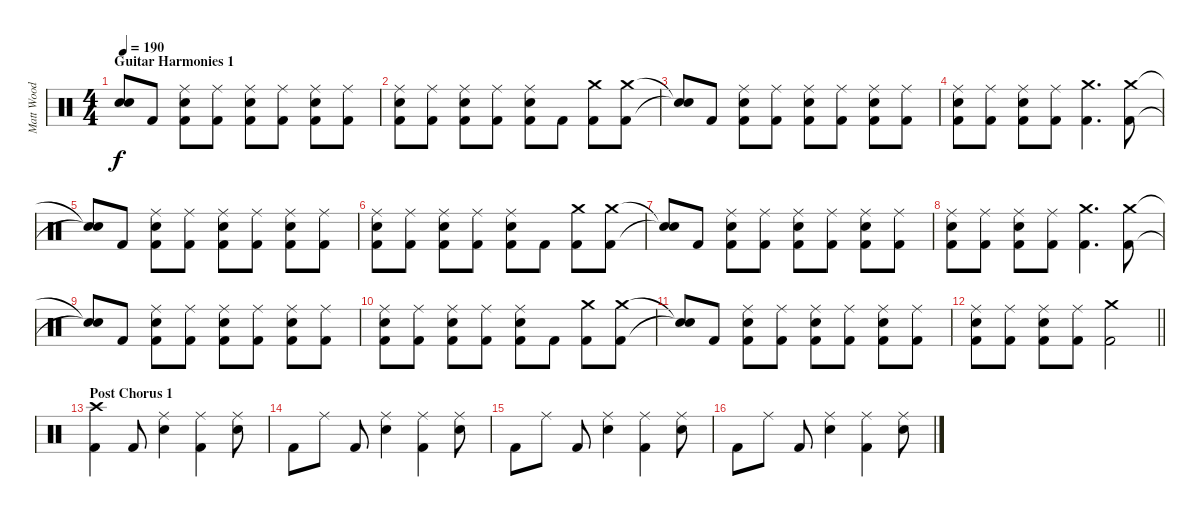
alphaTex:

\track ("Matt Wood" "Matt Wood") {instrument percussion}
\staff {score}
\articulation defaults
\ts (4 4)
\section ("" "Guitar Harmonies 1")
\tempo 190
\clef neutral
\ks c
("Snare (hit)"{t} "Snare (hit)"{t}).8{dy f} "Kick (hit) 2".8 ("Ride (middle)" "Snare (hit) 2" "Kick (hit) 2").8 ("Ride (middle)" "Kick (hit) 2").8 ("Ride (middle)" "Snare (hit) 2" "Kick (hit) 2").8 ("Ride (middle)" "Kick (hit) 2").8 ("Ride (middle)" "Snare (hit) 2" "Kick (hit) 2").8 ("Ride (middle)" "Kick (hit) 2").8 |
("Ride (middle)" "Snare (hit) 2" "Kick (hit) 2").8 ("Ride (middle)" "Kick (hit) 2").8 ("Ride (middle)" "Snare (hit) 2" "Kick (hit) 2").8 ("Ride (middle)" "Kick (hit) 2").8 ("Ride (middle)" "Snare (hit) 2" "Kick (hit) 2").8 "Kick (hit) 2".8 ("Crash medium (hit)" "Kick (hit) 2").8 ("Crash medium (hit)" "Kick (hit) 2").8 |
("Snare (hit)"{t} "Snare (hit)"{t}).8 "Kick (hit) 2".8 ("Ride (middle)" "Snare (hit) 2" "Kick (hit) 2").8 ("Ride (middle)" "Kick (hit) 2").8 ("Ride (middle)" "Snare (hit) 2" "Kick (hit) 2").8 ("Ride (middle)" "Kick (hit) 2").8 ("Ride (middle)" "Snare (hit) 2" "Kick (hit) 2").8 ("Ride (middle)" "Kick (hit) 2").8 |
("Ride (middle)" "Snare (hit) 2" "Kick (hit) 2").8 ("Ride (middle)" "Kick (hit) 2").8 ("Ride (middle)" "Snare (hit) 2" "Kick (hit) 2").8 ("Ride (middle)" "Kick (hit) 2").8 ("Crash medium (hit)" "Kick (hit) 2").4{d} ("Crash medium (hit)" "Kick (hit) 2").8 |
("Snare (hit)"{t} "Snare (hit)"{t}).8 "Kick (hit) 2".8 ("Ride (middle)" "Snare (hit) 2" "Kick (hit) 2").8 ("Ride (middle)" "Kick (hit) 2").8 ("Ride (middle)" "Snare (hit) 2" "Kick (hit) 2").8 ("Ride (middle)" "Kick (hit) 2").8 ("Ride (middle)" "Snare (hit) 2" "Kick (hit) 2").8 ("Ride (middle)" "Kick (hit) 2").8 |
("Ride (middle)" "Snare (hit) 2" "Kick (hit) 2").8 ("Ride (middle)" "Kick (hit) 2").8 ("Ride (middle)" "Snare (hit) 2" "Kick (hit) 2").8 ("Ride (middle)" "Kick (hit) 2").8 ("Ride (middle)" "Snare (hit) 2" "Kick (hit) 2").8 "Kick (hit) 2".8 ("Crash medium (hit)" "Kick (hit) 2").8 ("Crash medium (hit)" "Kick (hit) 2").8 |
("Snare (hit)"{t} "Snare (hit)"{t}).8 "Kick (hit) 2".8 ("Ride (middle)" "Snare (hit) 2" "Kick (hit) 2").8 ("Ride (middle)" "Kick (hit) 2").8 ("Ride (middle)" "Snare (hit) 2" "Kick (hit) 2").8 ("Ride (middle)" "Kick (hit) 2").8 ("Ride (middle)" "Snare (hit) 2" "Kick (hit) 2").8 ("Ride (middle)" "Kick (hit) 2").8 |
("Ride (middle)" "Snare (hit) 2" "Kick (hit) 2").8 ("Ride (middle)" "Kick (hit) 2").8 ("Ride (middle)" "Snare (hit) 2" "Kick (hit) 2").8 ("Ride (middle)" "Kick (hit) 2").8 ("Crash medium (hit)" "Kick (hit) 2").4{d} ("Crash medium (hit)" "Kick (hit) 2").8 |
("Snare (hit)"{t} "Snare (hit)"{t}).8 "Kick (hit) 2".8 ("Ride (middle)" "Snare (hit) 2" "Kick (hit) 2").8 ("Ride (middle)" "Kick (hit) 2").8 ("Ride (middle)" "Snare (hit) 2" "Kick (hit) 2").8 ("Ride (middle)" "Kick (hit) 2").8 ("Ride (middle)" "Snare (hit) 2" "Kick (hit) 2").8 ("Ride (middle)" "Kick (hit) 2").8 |
("Ride (middle)" "Snare (hit) 2" "Kick (hit) 2").8 ("Ride (middle)" "Kick (hit) 2").8 ("Ride (middle)" "Snare (hit) 2" "Kick (hit) 2").8 ("Ride (middle)" "Kick (hit) 2").8 ("Ride (middle)" "Snare (hit) 2" "Kick (hit) 2").8 "Kick (hit) 2".8 ("Crash medium (hit)" "Kick (hit) 2").8 ("Crash medium (hit)" "Kick (hit) 2").8 |
("Snare (hit)"{t} "Snare (hit)"{t}).8 "Kick (hit) 2".8 ("Ride (middle)" "Snare (hit) 2" "Kick (hit) 2").8 ("Ride (middle)" "Kick (hit) 2").8 ("Ride (middle)" "Snare (hit) 2" "Kick (hit) 2").8 ("Ride (middle)" "Kick (hit) 2").8 ("Ride (middle)" "Snare (hit) 2" "Kick (hit) 2").8 ("Ride (middle)" "Kick (hit) 2").8 |
\barLineRight lightlight
("Ride (middle)" "Snare (hit) 2" "Kick (hit) 2").8 ("Ride (middle)" "Kick (hit) 2").8 ("Ride (middle)" "Snare (hit) 2" "Kick (hit) 2").8 ("Ride (middle)" "Kick (hit) 2").8 ("Crash medium (hit)" "Kick (hit) 2").2 |
\section ("" "Post Chorus 1")
("Crash high (hit)" "Kick (hit) 2").4 "Kick (hit) 2".8 ("Ride (middle)" "Snare (hit) 2").4 ("Ride (middle)" "Kick (hit) 2").4 ("Ride (middle)" "Snare (hit) 2").8 |
"Kick (hit) 2".8 "Ride (middle)".8 "Kick (hit) 2".8 ("Ride (middle)" "Snare (hit) 2").4 ("Ride (middle)" "Kick (hit) 2").4 ("Ride (middle)" "Snare (hit) 2").8 |
"Kick (hit) 2".8 "Ride (middle)".8 "Kick (hit) 2".8 ("Ride (middle)" "Snare (hit) 2").4 ("Ride (middle)" "Kick (hit) 2").4 ("Ride (middle)" "Snare (hit) 2").8 |
"Kick (hit) 2".8 "Ride (middle)".8 "Kick (hit) 2".8 ("Ride (middle)" "Snare (hit) 2").4 ("Ride (middle)" "Kick (hit) 2").4 ("Ride (middle)" "Snare (hit) 2").8
